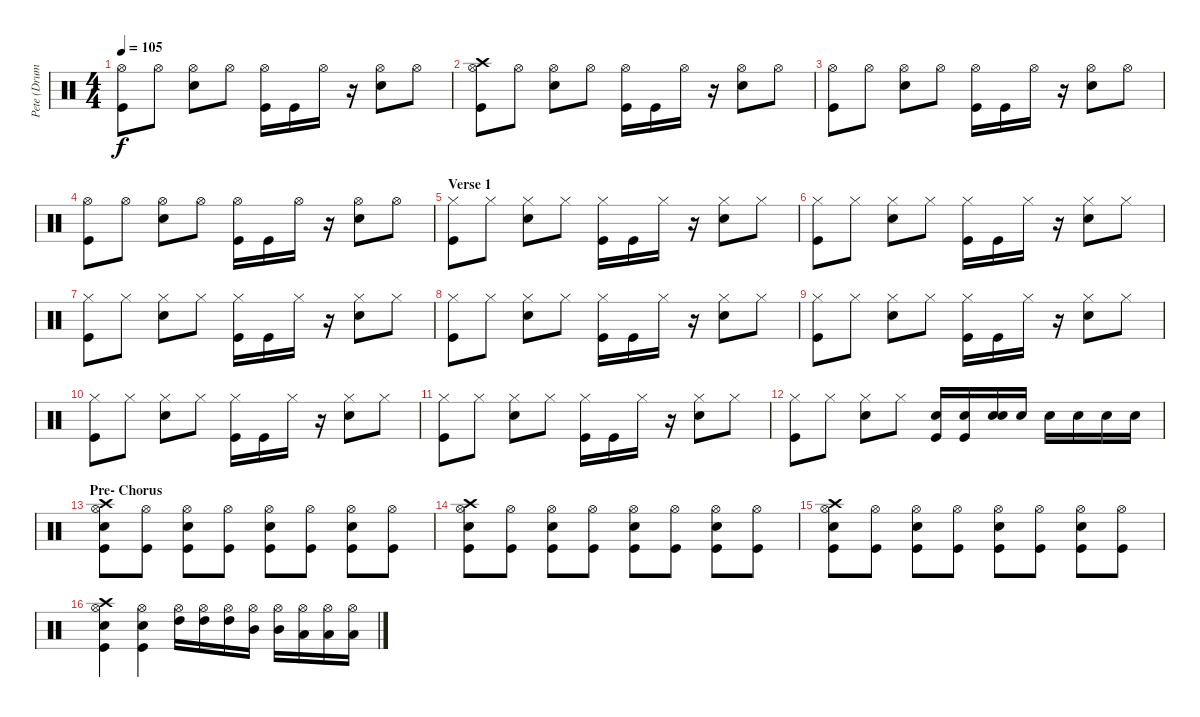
\track ("Pete (Drums)" "Pete (Drum") {instrument percussion}
\staff {score}
\articulation defaults
\ts (4 4)
\tempo 105
\clef neutral
\ks c
("Hi-Hat (open)" "Kick (hit)").8{dy f} "Hi-Hat (open)".8 ("Hi-Hat (open)" "Snare (hit) 2").8 "Hi-Hat (open)".8 ("Hi-Hat (open)" "Kick (hit)").16 "Kick (hit)".16 "Hi-Hat (open)".16 r.16 ("Hi-Hat (open)" "Snare (hit) 2").8 "Hi-Hat (open)".8 |
("Hi-Hat (open)" "Crash high (hit)" "Kick (hit)").8 "Hi-Hat (open)".8 ("Hi-Hat (open)" "Snare (hit) 2").8 "Hi-Hat (open)".8 ("Hi-Hat (open)" "Kick (hit)").16 "Kick (hit)".16 "Hi-Hat (open)".16 r.16 ("Hi-Hat (open)" "Snare (hit) 2").8 "Hi-Hat (open)".8 |
("Hi-Hat (open)" "Kick (hit)").8 "Hi-Hat (open)".8 ("Hi-Hat (open)" "Snare (hit) 2").8 "Hi-Hat (open)".8 ("Hi-Hat (open)" "Kick (hit)").16 "Kick (hit)".16 "Hi-Hat (open)".16 r.16 ("Hi-Hat (open)" "Snare (hit) 2").8 "Hi-Hat (open)".8 |
("Hi-Hat (open)" "Kick (hit)").8 "Hi-Hat (open)".8 ("Hi-Hat (open)" "Snare (hit) 2").8 "Hi-Hat (open)".8 ("Hi-Hat (open)" "Kick (hit)").16 "Kick (hit)".16 "Hi-Hat (open)".16 r.16 ("Hi-Hat (open)" "Snare (hit) 2").8 "Hi-Hat (open)".8 |
\section ("" "Verse 1")
("Hi-Hat (closed)" "Kick (hit)").8 "Hi-Hat (closed)".8 ("Hi-Hat (closed)" "Snare (hit) 2").8 "Hi-Hat (closed)".8 ("Hi-Hat (closed)" "Kick (hit)").16 "Kick (hit)".16 "Hi-Hat (closed)".16 r.16 ("Hi-Hat (closed)" "Snare (hit) 2").8 "Hi-Hat (closed)".8 |
("Hi-Hat (closed)" "Kick (hit)").8 "Hi-Hat (closed)".8 ("Hi-Hat (closed)" "Snare (hit) 2").8 "Hi-Hat (closed)".8 ("Hi-Hat (closed)" "Kick (hit)").16 "Kick (hit)".16 "Hi-Hat (closed)".16 r.16 ("Hi-Hat (closed)" "Snare (hit) 2").8 "Hi-Hat (closed)".8 |
("Hi-Hat (closed)" "Kick (hit)").8 "Hi-Hat (closed)".8 ("Hi-Hat (closed)" "Snare (hit) 2").8 "Hi-Hat (closed)".8 ("Hi-Hat (closed)" "Kick (hit)").16 "Kick (hit)".16 "Hi-Hat (closed)".16 r.16 ("Hi-Hat (closed)" "Snare (hit) 2").8 "Hi-Hat (closed)".8 |
("Hi-Hat (closed)" "Kick (hit)").8 "Hi-Hat (closed)".8 ("Hi-Hat (closed)" "Snare (hit) 2").8 "Hi-Hat (closed)".8 ("Hi-Hat (closed)" "Kick (hit)").16 "Kick (hit)".16 "Hi-Hat (closed)".16 r.16 ("Hi-Hat (closed)" "Snare (hit) 2").8 "Hi-Hat (closed)".8 |
("Hi-Hat (closed)" "Kick (hit)").8 "Hi-Hat (closed)".8 ("Hi-Hat (closed)" "Snare (hit) 2").8 "Hi-Hat (closed)".8 ("Hi-Hat (closed)" "Kick (hit)").16 "Kick (hit)".16 "Hi-Hat (closed)".16 r.16 ("Hi-Hat (closed)" "Snare (hit) 2").8 "Hi-Hat (closed)".8 |
("Hi-Hat (closed)" "Kick (hit)").8 "Hi-Hat (closed)".8 ("Hi-Hat (closed)" "Snare (hit) 2").8 "Hi-Hat (closed)".8 ("Hi-Hat (closed)" "Kick (hit)").16 "Kick (hit)".16 "Hi-Hat (closed)".16 r.16 ("Hi-Hat (closed)" "Snare (hit) 2").8 "Hi-Hat (closed)".8 |
("Hi-Hat (closed)" "Kick (hit)").8 "Hi-Hat (closed)".8 ("Hi-Hat (closed)" "Snare (hit) 2").8 "Hi-Hat (closed)".8 ("Hi-Hat (closed)" "Kick (hit)").16 "Kick (hit)".16 "Hi-Hat (closed)".16 r.16 ("Hi-Hat (closed)" "Snare (hit) 2").8 "Hi-Hat (closed)".8 |
("Hi-Hat (closed)" "Kick (hit)").8 "Hi-Hat (closed)".8 ("Hi-Hat (closed)" "Snare (hit) 2").8 "Hi-Hat (closed)".8 ("Snare (hit) 2" "Kick (hit)").16 ("Snare (hit) 2" "Kick (hit)").16 ("Snare (hit) 2" "Snare (hit) 2").16 "Snare (hit) 2".16 "Snare (hit) 2".16 "Snare (hit) 2".16 "Snare (hit) 2".16 "Snare (hit) 2".16 |
\section ("" "Pre- Chorus")
("Crash high (hit)" "Kick (hit)" "Hi-Hat (open)" "Snare (hit) 2").8 ("Kick (hit)" "Hi-Hat (open)").8 ("Kick (hit)" "Hi-Hat (open)" "Snare (hit) 2").8 ("Kick (hit)" "Hi-Hat (open)").8 ("Kick (hit)" "Hi-Hat (open)" "Snare (hit) 2").8 ("Kick (hit)" "Hi-Hat (open)").8 ("Kick (hit)" "Hi-Hat (open)" "Snare (hit) 2").8 ("Kick (hit)" "Hi-Hat (open)").8 |
("Crash high (hit)" "Kick (hit)" "Hi-Hat (open)" "Snare (hit) 2").8 ("Kick (hit)" "Hi-Hat (open)").8 ("Kick (hit)" "Hi-Hat (open)" "Snare (hit) 2").8 ("Kick (hit)" "Hi-Hat (open)").8 ("Kick (hit)" "Hi-Hat (open)" "Snare (hit) 2").8 ("Kick (hit)" "Hi-Hat (open)").8 ("Kick (hit)" "Hi-Hat (open)" "Snare (hit) 2").8 ("Kick (hit)" "Hi-Hat (open)").8 |
("Crash high (hit)" "Kick (hit)" "Hi-Hat (open)" "Snare (hit) 2").8 ("Kick (hit)" "Hi-Hat (open)").8 ("Kick (hit)" "Hi-Hat (open)" "Snare (hit) 2").8 ("Kick (hit)" "Hi-Hat (open)").8 ("Kick (hit)" "Hi-Hat (open)" "Snare (hit) 2").8 ("Kick (hit)" "Hi-Hat (open)").8 ("Kick (hit)" "Hi-Hat (open)" "Snare (hit) 2").8 ("Kick (hit)" "Hi-Hat (open)").8 |
("Crash high (hit)" "Kick (hit)" "Hi-Hat (open)" "Snare (hit) 2").4 ("Kick (hit)" "Hi-Hat (open)" "Snare (hit) 2").4 ("High Tom (hit)" "Hi-Hat (open)").16 ("High Tom (hit)" "Hi-Hat (open)").16 ("High Tom (hit)" "Hi-Hat (open)").16 ("Mid Tom (hit)" "Hi-Hat (open)").16 ("Mid Tom (hit)" "Hi-Hat (open)").16 ("Low Tom (hit)" "Hi-Hat (open)").16 ("Low Tom (hit)" "Hi-Hat (open)").16 ("Low Tom (hit)" "Hi-Hat (open)").16
